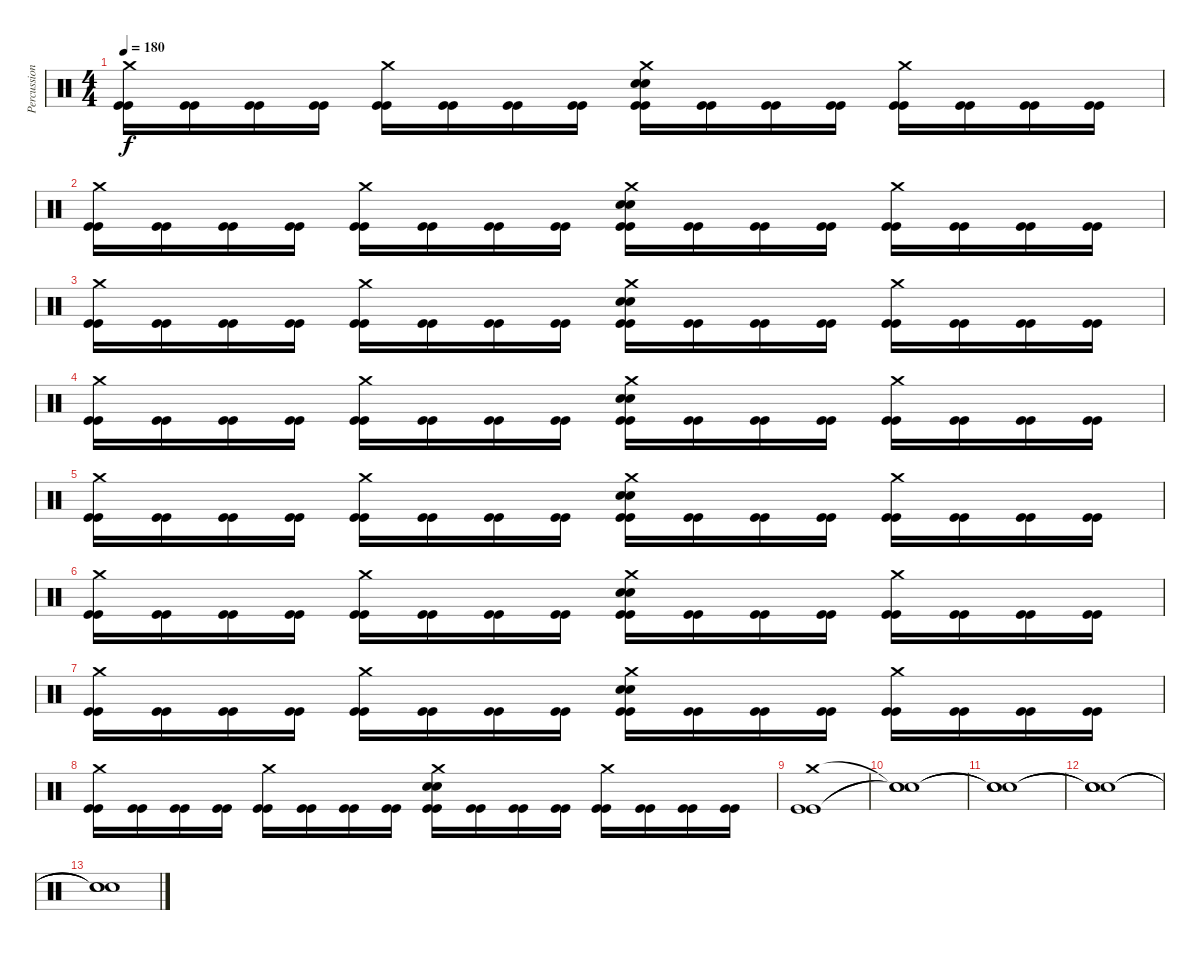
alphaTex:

\track ("Percussion" "Percussion") {instrument percussion}
\staff {score}
\articulation defaults
\ts (4 4)
\tempo 180
\clef neutral
\ks c
("Crash medium (hit)" "Kick (hit)" "Kick (hit)").16{dy f} ("Kick (hit)" "Kick (hit)").16 ("Kick (hit)" "Kick (hit)").16 ("Kick (hit)" "Kick (hit)").16 ("Crash medium (hit)" "Kick (hit)" "Kick (hit)").16 ("Kick (hit)" "Kick (hit)").16 ("Kick (hit)" "Kick (hit)").16 ("Kick (hit)" "Kick (hit)").16 ("Snare (hit) 2" "Snare (hit) 2" "Crash medium (hit)" "Kick (hit)" "Kick (hit)").16 ("Kick (hit)" "Kick (hit)").16 ("Kick (hit)" "Kick (hit)").16 ("Kick (hit)" "Kick (hit)").16 ("Crash medium (hit)" "Kick (hit)" "Kick (hit)").16 ("Kick (hit)" "Kick (hit)").16 ("Kick (hit)" "Kick (hit)").16 ("Kick (hit)" "Kick (hit)").16 |
("Crash medium (hit)" "Kick (hit)" "Kick (hit)").16 ("Kick (hit)" "Kick (hit)").16 ("Kick (hit)" "Kick (hit)").16 ("Kick (hit)" "Kick (hit)").16 ("Crash medium (hit)" "Kick (hit)" "Kick (hit)").16 ("Kick (hit)" "Kick (hit)").16 ("Kick (hit)" "Kick (hit)").16 ("Kick (hit)" "Kick (hit)").16 ("Snare (hit) 2" "Snare (hit) 2" "Crash medium (hit)" "Kick (hit)" "Kick (hit)").16 ("Kick (hit)" "Kick (hit)").16 ("Kick (hit)" "Kick (hit)").16 ("Kick (hit)" "Kick (hit)").16 ("Crash medium (hit)" "Kick (hit)" "Kick (hit)").16 ("Kick (hit)" "Kick (hit)").16 ("Kick (hit)" "Kick (hit)").16 ("Kick (hit)" "Kick (hit)").16 |
("Crash medium (hit)" "Kick (hit)" "Kick (hit)").16 ("Kick (hit)" "Kick (hit)").16 ("Kick (hit)" "Kick (hit)").16 ("Kick (hit)" "Kick (hit)").16 ("Crash medium (hit)" "Kick (hit)" "Kick (hit)").16 ("Kick (hit)" "Kick (hit)").16 ("Kick (hit)" "Kick (hit)").16 ("Kick (hit)" "Kick (hit)").16 ("Snare (hit) 2" "Snare (hit) 2" "Crash medium (hit)" "Kick (hit)" "Kick (hit)").16 ("Kick (hit)" "Kick (hit)").16 ("Kick (hit)" "Kick (hit)").16 ("Kick (hit)" "Kick (hit)").16 ("Crash medium (hit)" "Kick (hit)" "Kick (hit)").16 ("Kick (hit)" "Kick (hit)").16 ("Kick (hit)" "Kick (hit)").16 ("Kick (hit)" "Kick (hit)").16 |
("Crash medium (hit)" "Kick (hit)" "Kick (hit)").16 ("Kick (hit)" "Kick (hit)").16 ("Kick (hit)" "Kick (hit)").16 ("Kick (hit)" "Kick (hit)").16 ("Crash medium (hit)" "Kick (hit)" "Kick (hit)").16 ("Kick (hit)" "Kick (hit)").16 ("Kick (hit)" "Kick (hit)").16 ("Kick (hit)" "Kick (hit)").16 ("Snare (hit) 2" "Snare (hit) 2" "Crash medium (hit)" "Kick (hit)" "Kick (hit)").16 ("Kick (hit)" "Kick (hit)").16 ("Kick (hit)" "Kick (hit)").16 ("Kick (hit)" "Kick (hit)").16 ("Crash medium (hit)" "Kick (hit)" "Kick (hit)").16 ("Kick (hit)" "Kick (hit)").16 ("Kick (hit)" "Kick (hit)").16 ("Kick (hit)" "Kick (hit)").16 |
("Crash medium (hit)" "Kick (hit)" "Kick (hit)").16 ("Kick (hit)" "Kick (hit)").16 ("Kick (hit)" "Kick (hit)").16 ("Kick (hit)" "Kick (hit)").16 ("Crash medium (hit)" "Kick (hit)" "Kick (hit)").16 ("Kick (hit)" "Kick (hit)").16 ("Kick (hit)" "Kick (hit)").16 ("Kick (hit)" "Kick (hit)").16 ("Snare (hit) 2" "Snare (hit) 2" "Crash medium (hit)" "Kick (hit)" "Kick (hit)").16 ("Kick (hit)" "Kick (hit)").16 ("Kick (hit)" "Kick (hit)").16 ("Kick (hit)" "Kick (hit)").16 ("Crash medium (hit)" "Kick (hit)" "Kick (hit)").16 ("Kick (hit)" "Kick (hit)").16 ("Kick (hit)" "Kick (hit)").16 ("Kick (hit)" "Kick (hit)").16 |
("Crash medium (hit)" "Kick (hit)" "Kick (hit)").16 ("Kick (hit)" "Kick (hit)").16 ("Kick (hit)" "Kick (hit)").16 ("Kick (hit)" "Kick (hit)").16 ("Crash medium (hit)" "Kick (hit)" "Kick (hit)").16 ("Kick (hit)" "Kick (hit)").16 ("Kick (hit)" "Kick (hit)").16 ("Kick (hit)" "Kick (hit)").16 ("Snare (hit) 2" "Snare (hit) 2" "Crash medium (hit)" "Kick (hit)" "Kick (hit)").16 ("Kick (hit)" "Kick (hit)").16 ("Kick (hit)" "Kick (hit)").16 ("Kick (hit)" "Kick (hit)").16 ("Crash medium (hit)" "Kick (hit)" "Kick (hit)").16 ("Kick (hit)" "Kick (hit)").16 ("Kick (hit)" "Kick (hit)").16 ("Kick (hit)" "Kick (hit)").16 |
("Crash medium (hit)" "Kick (hit)" "Kick (hit)").16 ("Kick (hit)" "Kick (hit)").16 ("Kick (hit)" "Kick (hit)").16 ("Kick (hit)" "Kick (hit)").16 ("Crash medium (hit)" "Kick (hit)" "Kick (hit)").16 ("Kick (hit)" "Kick (hit)").16 ("Kick (hit)" "Kick (hit)").16 ("Kick (hit)" "Kick (hit)").16 ("Snare (hit) 2" "Snare (hit) 2" "Crash medium (hit)" "Kick (hit)" "Kick (hit)").16 ("Kick (hit)" "Kick (hit)").16 ("Kick (hit)" "Kick (hit)").16 ("Kick (hit)" "Kick (hit)").16 ("Crash medium (hit)" "Kick (hit)" "Kick (hit)").16 ("Kick (hit)" "Kick (hit)").16 ("Kick (hit)" "Kick (hit)").16 ("Kick (hit)" "Kick (hit)").16 |
("Crash medium (hit)" "Kick (hit)" "Kick (hit)").16 ("Kick (hit)" "Kick (hit)").16 ("Kick (hit)" "Kick (hit)").16 ("Kick (hit)" "Kick (hit)").16 ("Crash medium (hit)" "Kick (hit)" "Kick (hit)").16 ("Kick (hit)" "Kick (hit)").16 ("Kick (hit)" "Kick (hit)").16 ("Kick (hit)" "Kick (hit)").16 ("Snare (hit) 2" "Snare (hit) 2" "Crash medium (hit)" "Kick (hit)" "Kick (hit)").16 ("Kick (hit)" "Kick (hit)").16 ("Kick (hit)" "Kick (hit)").16 ("Kick (hit)" "Kick (hit)").16 ("Crash medium (hit)" "Kick (hit)" "Kick (hit)").16 ("Kick (hit)" "Kick (hit)").16 ("Kick (hit)" "Kick (hit)").16 ("Kick (hit)" "Kick (hit)").16 |
("Kick (hit)" "Kick (hit)" "Crash medium (hit)").1 |
("Snare (hit)"{t} "Snare (hit)"{t} "Snare (hit)"{t}).1 |
("Snare (hit)"{t} "Snare (hit)"{t} "Snare (hit)"{t}).1 |
("Snare (hit)"{t} "Snare (hit)"{t} "Snare (hit)"{t}).1 |
("Snare (hit)"{t} "Snare (hit)"{t} "Snare (hit)"{t}).1
